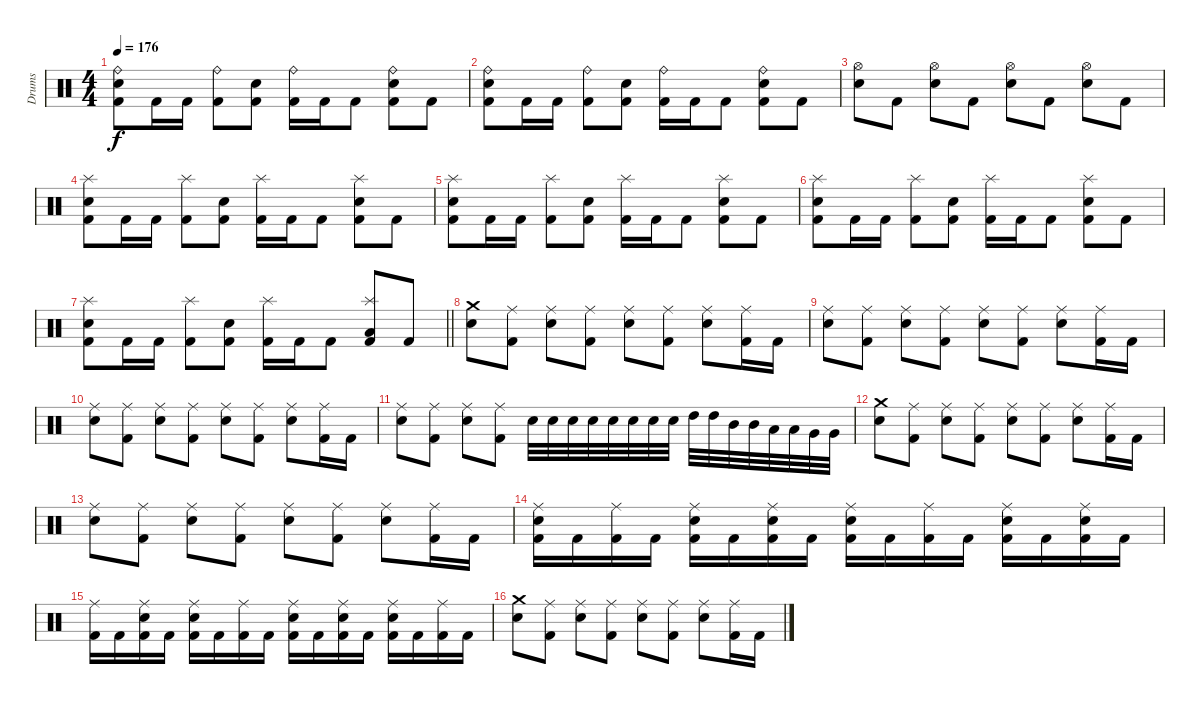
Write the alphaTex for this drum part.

\track ("Drums" "Drums") {instrument percussion}
\staff {score}
\articulation defaults
\ts (4 4)
\tempo 176
\clef neutral
\ks c
("Ride (bell)" "Snare (hit) 2" "Kick (hit) 2").8{dy f} "Kick (hit) 2".16 "Kick (hit) 2".16 ("Ride (bell)" "Kick (hit) 2").8 ("Snare (hit) 2" "Kick (hit) 2").8 ("Ride (bell)" "Kick (hit) 2").16 "Kick (hit) 2".16 "Kick (hit) 2".8 ("Ride (bell)" "Snare (hit) 2" "Kick (hit) 2").8 "Kick (hit) 2".8 |
("Ride (bell)" "Snare (hit) 2" "Kick (hit) 2").8 "Kick (hit) 2".16 "Kick (hit) 2".16 ("Ride (bell)" "Kick (hit) 2").8 ("Snare (hit) 2" "Kick (hit) 2").8 ("Ride (bell)" "Kick (hit) 2").16 "Kick (hit) 2".16 "Kick (hit) 2".8 ("Ride (bell)" "Snare (hit) 2" "Kick (hit) 2").8 "Kick (hit) 2".8 |
("Hi-Hat (open)" "Snare (hit) 2").8 "Kick (hit) 2".8 ("Hi-Hat (open)" "Snare (hit) 2").8 "Kick (hit) 2".8 ("Hi-Hat (open)" "Snare (hit) 2").8 "Kick (hit) 2".8 ("Hi-Hat (open)" "Snare (hit) 2").8 "Kick (hit) 2".8 |
("Splash (hit)" "Snare (hit) 2" "Kick (hit) 2").8 "Kick (hit) 2".16 "Kick (hit) 2".16 ("Splash (hit)" "Kick (hit) 2").8 ("Snare (hit) 2" "Kick (hit) 2").8 ("Splash (hit)" "Kick (hit) 2").16 "Kick (hit) 2".16 "Kick (hit) 2".8 ("Splash (hit)" "Snare (hit) 2" "Kick (hit) 2").8 "Kick (hit) 2".8 |
("Splash (hit)" "Snare (hit) 2" "Kick (hit) 2").8 "Kick (hit) 2".16 "Kick (hit) 2".16 ("Splash (hit)" "Kick (hit) 2").8 ("Snare (hit) 2" "Kick (hit) 2").8 ("Splash (hit)" "Kick (hit) 2").16 "Kick (hit) 2".16 "Kick (hit) 2".8 ("Splash (hit)" "Snare (hit) 2" "Kick (hit) 2").8 "Kick (hit) 2".8 |
("Splash (hit)" "Snare (hit) 2" "Kick (hit) 2").8 "Kick (hit) 2".16 "Kick (hit) 2".16 ("Splash (hit)" "Kick (hit) 2").8 ("Snare (hit) 2" "Kick (hit) 2").8 ("Splash (hit)" "Kick (hit) 2").16 "Kick (hit) 2".16 "Kick (hit) 2".8 ("Splash (hit)" "Snare (hit) 2" "Kick (hit) 2").8 "Kick (hit) 2".8 |
\barLineRight lightlight
("Splash (hit)" "Snare (hit) 2" "Kick (hit) 2").8 "Kick (hit) 2".16 "Kick (hit) 2".16 ("Splash (hit)" "Kick (hit) 2").8 ("Snare (hit) 2" "Kick (hit) 2").8 ("Splash (hit)" "Kick (hit) 2").16 "Kick (hit) 2".16 "Kick (hit) 2".8 ("Splash (hit)" "Low Floor Tom (hit)" "Kick (hit) 2").8 "Kick (hit) 2".8 |
\section ("" "")
("Crash medium (hit)" "Snare (hit) 2").8 ("Ride (middle)" "Kick (hit) 2").8 ("Ride (middle)" "Snare (hit) 2").8 ("Ride (middle)" "Kick (hit) 2").8 ("Ride (middle)" "Snare (hit) 2").8 ("Ride (middle)" "Kick (hit) 2").8 ("Ride (middle)" "Snare (hit) 2").8 ("Ride (middle)" "Kick (hit) 2").16 "Kick (hit) 2".16 |
("Ride (middle)" "Snare (hit) 2").8 ("Ride (middle)" "Kick (hit) 2").8 ("Ride (middle)" "Snare (hit) 2").8 ("Ride (middle)" "Kick (hit) 2").8 ("Ride (middle)" "Snare (hit) 2").8 ("Ride (middle)" "Kick (hit) 2").8 ("Ride (middle)" "Snare (hit) 2").8 ("Ride (middle)" "Kick (hit) 2").16 "Kick (hit) 2".16 |
("Ride (middle)" "Snare (hit) 2").8 ("Ride (middle)" "Kick (hit) 2").8 ("Ride (middle)" "Snare (hit) 2").8 ("Ride (middle)" "Kick (hit) 2").8 ("Ride (middle)" "Snare (hit) 2").8 ("Ride (middle)" "Kick (hit) 2").8 ("Ride (middle)" "Snare (hit) 2").8 ("Ride (middle)" "Kick (hit) 2").16 "Kick (hit) 2".16 |
("Ride (middle)" "Snare (hit) 2").8 ("Ride (middle)" "Kick (hit) 2").8 ("Ride (middle)" "Snare (hit) 2").8 ("Ride (middle)" "Kick (hit) 2").8 "Snare (hit) 2".32 "Snare (hit) 2".32 "Snare (hit) 2".32 "Snare (hit) 2".32 "Snare (hit) 2".32 "Snare (hit) 2".32 "Snare (hit) 2".32 "Snare (hit) 2".32 "High Tom (hit)".32 "High Tom (hit)".32 "Mid Tom (hit)".32 "Mid Tom (hit)".32 "Low Tom (hit)".32 "Low Tom (hit)".32 "Very Low Tom (hit)".32 "Very Low Tom (hit)".32 |
("Crash medium (hit)" "Snare (hit) 2").8 ("Ride (middle)" "Kick (hit) 2").8 ("Ride (middle)" "Snare (hit) 2").8 ("Ride (middle)" "Kick (hit) 2").8 ("Ride (middle)" "Snare (hit) 2").8 ("Ride (middle)" "Kick (hit) 2").8 ("Ride (middle)" "Snare (hit) 2").8 ("Ride (middle)" "Kick (hit) 2").16 "Kick (hit) 2".16 |
("Ride (middle)" "Snare (hit) 2").8 ("Ride (middle)" "Kick (hit) 2").8 ("Ride (middle)" "Snare (hit) 2").8 ("Ride (middle)" "Kick (hit) 2").8 ("Ride (middle)" "Snare (hit) 2").8 ("Ride (middle)" "Kick (hit) 2").8 ("Ride (middle)" "Snare (hit) 2").8 ("Ride (middle)" "Kick (hit) 2").16 "Kick (hit) 2".16 |
("Ride (middle)" "Snare (hit) 2" "Kick (hit) 2").16 "Kick (hit) 2".16 ("Ride (middle)" "Kick (hit) 2").16 "Kick (hit) 2".16 ("Ride (middle)" "Snare (hit) 2" "Kick (hit) 2").16 "Kick (hit) 2".16 ("Ride (middle)" "Snare (hit) 2" "Kick (hit) 2").16 "Kick (hit) 2".16 ("Ride (middle)" "Snare (hit) 2" "Kick (hit) 2").16 "Kick (hit) 2".16 ("Ride (middle)" "Kick (hit) 2").16 "Kick (hit) 2".16 ("Ride (middle)" "Snare (hit) 2" "Kick (hit) 2").16 "Kick (hit) 2".16 ("Ride (middle)" "Snare (hit) 2" "Kick (hit) 2").16 "Kick (hit) 2".16 |
("Ride (middle)" "Kick (hit) 2").16 "Kick (hit) 2".16 ("Ride (middle)" "Snare (hit) 2" "Kick (hit) 2").16 "Kick (hit) 2".16 ("Ride (middle)" "Snare (hit) 2" "Kick (hit) 2").16 "Kick (hit) 2".16 ("Ride (middle)" "Kick (hit) 2").16 "Kick (hit) 2".16 ("Ride (middle)" "Snare (hit) 2" "Kick (hit) 2").16 "Kick (hit) 2".16 ("Ride (middle)" "Snare (hit) 2" "Kick (hit) 2").16 "Kick (hit) 2".16 ("Ride (middle)" "Snare (hit) 2" "Kick (hit) 2").16 "Kick (hit) 2".16 ("Ride (middle)" "Kick (hit) 2").16 "Kick (hit) 2".16 |
("Crash medium (hit)" "Snare (hit) 2").8 ("Ride (middle)" "Kick (hit) 2").8 ("Ride (middle)" "Snare (hit) 2").8 ("Ride (middle)" "Kick (hit) 2").8 ("Ride (middle)" "Snare (hit) 2").8 ("Ride (middle)" "Kick (hit) 2").8 ("Ride (middle)" "Snare (hit) 2").8 ("Ride (middle)" "Kick (hit) 2").16 "Kick (hit) 2".16
